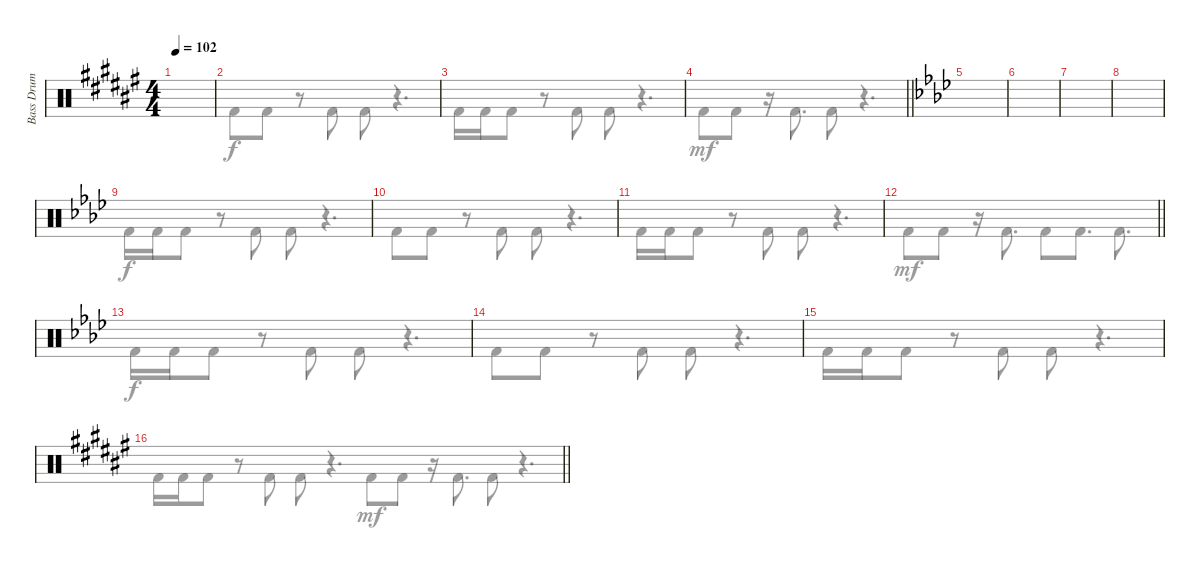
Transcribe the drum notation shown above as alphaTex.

\track ("Bass Drum" "Bass Drum") {instrument percussion}
\staff {score}
\articulation defaults
\voice
\ts (4 4)
\tempo 102
\clef neutral
\ks d#minor
|
|
|
\barLineRight lightlight
|
\ks fminor
|
|
|
|
|
|
|
\barLineRight lightlight
|
|
|
|
\barLineRight lightlight
\voice
\clef neutral
\ks d#minor "Kick (hit) 2".16{dy f} "Kick (hit) 2".16 "Kick (hit) 2".8
r.8 "Kick (hit) 2".8 "Kick (hit) 2".8 r.4{d} |
"Kick (hit) 2".8 "Kick (hit) 2".8 r.8 "Kick (hit) 2".8 "Kick (hit) 2".8 r.4{d} |
"Kick (hit) 2".16 "Kick (hit) 2".16 "Kick (hit) 2".8 r.8 "Kick (hit) 2".8 "Kick (hit) 2".8 r.4{d} |
\barLineRight lightlight "Kick (hit) 2".8{dy mf} "Kick (hit) 2".8
r.16 "Kick (hit) 2".8{d} "Kick (hit) 2".8 r.4{d} |
\ks fminor
|
|
|
|
"Kick (hit) 2".16{dy f} "Kick (hit) 2".16 "Kick (hit) 2".8 r.8 "Kick (hit) 2".8 "Kick (hit) 2".8 r.4{d} |
"Kick (hit) 2".8 "Kick (hit) 2".8 r.8 "Kick (hit) 2".8 "Kick (hit) 2".8 r.4{d} |
"Kick (hit) 2".16 "Kick (hit) 2".16 "Kick (hit) 2".8 r.8 "Kick (hit) 2".8 "Kick (hit) 2".8 r.4{d} |
\barLineRight lightlight "Kick (hit) 2".8{dy mf} "Kick (hit) 2".8
r.16 "Kick (hit) 2".8{d} "Kick (hit) 2".8 "Kick (hit) 2".8{d} "Kick (hit) 2".8{d} |
"Kick (hit) 2".16{dy f} "Kick (hit) 2".16 "Kick (hit) 2".8 r.8 "Kick (hit) 2".8 "Kick (hit) 2".8 r.4{d} |
"Kick (hit) 2".8 "Kick (hit) 2".8 r.8 "Kick (hit) 2".8 "Kick (hit) 2".8 r.4{d} |
"Kick (hit) 2".16 "Kick (hit) 2".16 "Kick (hit) 2".8 r.8 "Kick (hit) 2".8 "Kick (hit) 2".8 r.4{d} |
\barLineRight lightlight "Kick (hit) 2".8{dy mf} "Kick (hit) 2".8
r.16 "Kick (hit) 2".8{d} "Kick (hit) 2".8 r.4{d}
